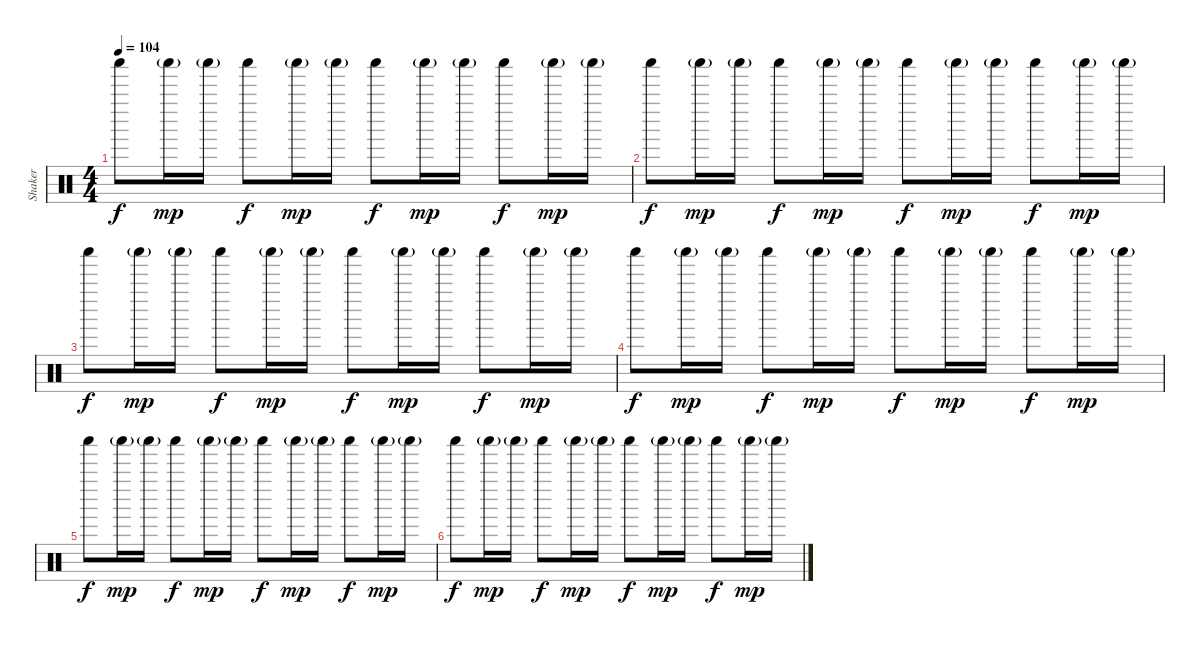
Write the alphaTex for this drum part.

\track ("Shaker" "Shaker") {instrument percussion}
\staff {score}
\articulation defaults
\ts (4 4)
\tempo 104
\clef neutral
\ks c "Shaker (hit)".8{dy f} "Shaker (hit)"{g}.16{dy mp} "Shaker (hit)"{g}.16 "Shaker (hit)".8{dy f} "Shaker (hit)"{g}.16{dy mp} "Shaker (hit)"{g}.16 "Shaker (hit)".8{dy f} "Shaker (hit)"{g}.16{dy mp} "Shaker (hit)"{g}.16 "Shaker (hit)".8{dy f} "Shaker (hit)"{g}.16{dy mp} "Shaker (hit)"{g}.16
|
"Shaker (hit)".8{dy f} "Shaker (hit)"{g}.16{dy mp} "Shaker (hit)"{g}.16 "Shaker (hit)".8{dy f} "Shaker (hit)"{g}.16{dy mp} "Shaker (hit)"{g}.16 "Shaker (hit)".8{dy f} "Shaker (hit)"{g}.16{dy mp} "Shaker (hit)"{g}.16 "Shaker (hit)".8{dy f} "Shaker (hit)"{g}.16{dy mp} "Shaker (hit)"{g}.16 |
"Shaker (hit)".8{dy f} "Shaker (hit)"{g}.16{dy mp} "Shaker (hit)"{g}.16 "Shaker (hit)".8{dy f} "Shaker (hit)"{g}.16{dy mp} "Shaker (hit)"{g}.16 "Shaker (hit)".8{dy f} "Shaker (hit)"{g}.16{dy mp} "Shaker (hit)"{g}.16 "Shaker (hit)".8{dy f} "Shaker (hit)"{g}.16{dy mp} "Shaker (hit)"{g}.16 |
"Shaker (hit)".8{dy f} "Shaker (hit)"{g}.16{dy mp} "Shaker (hit)"{g}.16 "Shaker (hit)".8{dy f} "Shaker (hit)"{g}.16{dy mp} "Shaker (hit)"{g}.16 "Shaker (hit)".8{dy f} "Shaker (hit)"{g}.16{dy mp} "Shaker (hit)"{g}.16 "Shaker (hit)".8{dy f} "Shaker (hit)"{g}.16{dy mp} "Shaker (hit)"{g}.16 |
"Shaker (hit)".8{dy f} "Shaker (hit)"{g}.16{dy mp} "Shaker (hit)"{g}.16 "Shaker (hit)".8{dy f} "Shaker (hit)"{g}.16{dy mp} "Shaker (hit)"{g}.16 "Shaker (hit)".8{dy f} "Shaker (hit)"{g}.16{dy mp} "Shaker (hit)"{g}.16 "Shaker (hit)".8{dy f} "Shaker (hit)"{g}.16{dy mp} "Shaker (hit)"{g}.16 |
"Shaker (hit)".8{dy f} "Shaker (hit)"{g}.16{dy mp} "Shaker (hit)"{g}.16 "Shaker (hit)".8{dy f} "Shaker (hit)"{g}.16{dy mp} "Shaker (hit)"{g}.16 "Shaker (hit)".8{dy f} "Shaker (hit)"{g}.16{dy mp} "Shaker (hit)"{g}.16 "Shaker (hit)".8{dy f} "Shaker (hit)"{g}.16{dy mp} "Shaker (hit)"{g}.16
